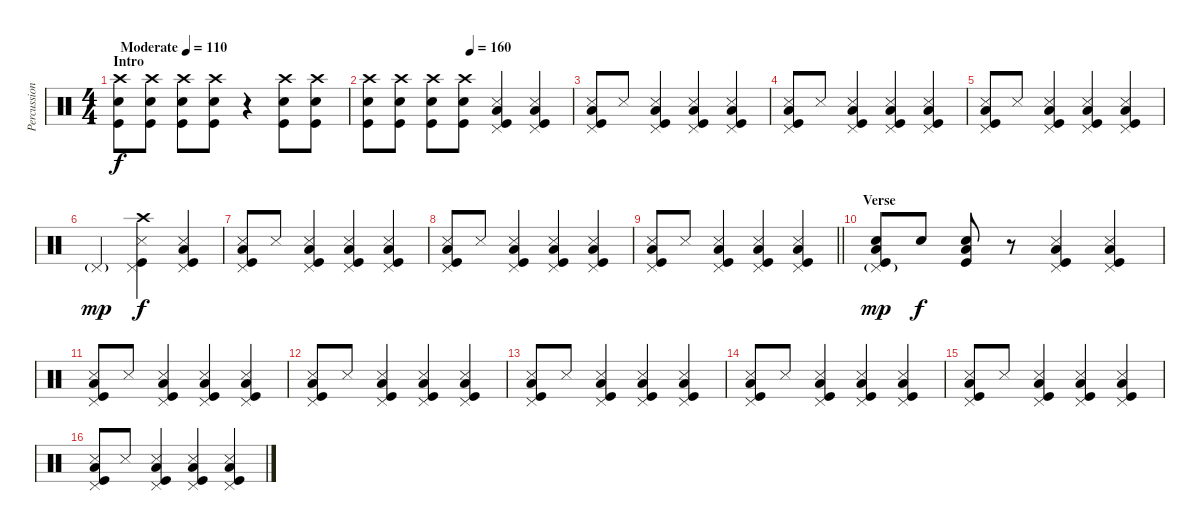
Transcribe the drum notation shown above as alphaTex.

\track ("Percussion" "Percussion") {instrument percussion}
\staff {score}
\articulation defaults
\ts (4 4)
\section ("" "Intro")
\tempo (110 "Moderate")
\clef neutral
\ks c
("Crash high (hit)" "Snare (hit) 2" "Kick (hit)").8{dy f} ("Crash high (hit)" "Snare (hit) 2" "Kick (hit)").8 ("Crash high (hit)" "Snare (hit) 2" "Kick (hit)").8 ("Crash high (hit)" "Snare (hit) 2" "Kick (hit)").8 r.4 ("Crash high (hit)" "Snare (hit) 2" "Kick (hit)").8 ("Crash high (hit)" "Snare (hit) 2" "Kick (hit)").8 |
\tempo (160 0.5)
("Crash high (hit)" "Snare (hit) 2" "Kick (hit)").8 ("Crash high (hit)" "Snare (hit) 2" "Kick (hit)").8 ("Crash high (hit)" "Snare (hit) 2" "Kick (hit)").8 ("Crash high (hit)" "Snare (hit) 2" "Kick (hit)").8 ("Snare (side stick) 3" "Low Floor Tom (hit)" "Kick (hit)" "Pedal Hi-Hat (hit)").4 ("Snare (side stick) 3" "Low Floor Tom (hit)" "Kick (hit)" "Pedal Hi-Hat (hit)").4 |
("Snare (side stick) 3" "Low Floor Tom (hit)" "Kick (hit)" "Pedal Hi-Hat (hit)").8 "Snare (side stick) 3".8 ("Snare (side stick) 3" "Low Floor Tom (hit)" "Kick (hit)" "Pedal Hi-Hat (hit)").4 ("Snare (side stick) 3" "Low Floor Tom (hit)" "Kick (hit)" "Pedal Hi-Hat (hit)").4 ("Snare (side stick) 3" "Low Floor Tom (hit)" "Kick (hit)" "Pedal Hi-Hat (hit)").4 |
("Snare (side stick) 3" "Low Floor Tom (hit)" "Kick (hit)" "Pedal Hi-Hat (hit)").8 "Snare (side stick) 3".8 ("Snare (side stick) 3" "Low Floor Tom (hit)" "Kick (hit)" "Pedal Hi-Hat (hit)").4 ("Snare (side stick) 3" "Low Floor Tom (hit)" "Kick (hit)" "Pedal Hi-Hat (hit)").4 ("Snare (side stick) 3" "Low Floor Tom (hit)" "Kick (hit)" "Pedal Hi-Hat (hit)").4 |
("Snare (side stick) 3" "Low Floor Tom (hit)" "Kick (hit)" "Pedal Hi-Hat (hit)").8 "Snare (side stick) 3".8 ("Snare (side stick) 3" "Low Floor Tom (hit)" "Kick (hit)" "Pedal Hi-Hat (hit)").4 ("Snare (side stick) 3" "Low Floor Tom (hit)" "Kick (hit)" "Pedal Hi-Hat (hit)").4 ("Snare (side stick) 3" "Low Floor Tom (hit)" "Kick (hit)" "Pedal Hi-Hat (hit)").4 |
"Pedal Hi-Hat (hit)"{g}.2{dy mp} ("Crash high (hit)" "Snare (side stick) 3" "Kick (hit)" "Pedal Hi-Hat (hit)").4{dy f} ("Snare (side stick) 3" "Low Floor Tom (hit)" "Kick (hit)" "Pedal Hi-Hat (hit)").4 |
("Snare (side stick) 3" "Low Floor Tom (hit)" "Kick (hit)" "Pedal Hi-Hat (hit)").8 "Snare (side stick) 3".8 ("Snare (side stick) 3" "Low Floor Tom (hit)" "Kick (hit)" "Pedal Hi-Hat (hit)").4 ("Snare (side stick) 3" "Low Floor Tom (hit)" "Kick (hit)" "Pedal Hi-Hat (hit)").4 ("Snare (side stick) 3" "Low Floor Tom (hit)" "Kick (hit)" "Pedal Hi-Hat (hit)").4 |
("Snare (side stick) 3" "Low Floor Tom (hit)" "Kick (hit)" "Pedal Hi-Hat (hit)").8 "Snare (side stick) 3".8 ("Snare (side stick) 3" "Low Floor Tom (hit)" "Kick (hit)" "Pedal Hi-Hat (hit)").4 ("Snare (side stick) 3" "Low Floor Tom (hit)" "Kick (hit)" "Pedal Hi-Hat (hit)").4 ("Snare (side stick) 3" "Low Floor Tom (hit)" "Kick (hit)" "Pedal Hi-Hat (hit)").4 |
\barLineRight lightlight
("Snare (side stick) 3" "Low Floor Tom (hit)" "Kick (hit)" "Pedal Hi-Hat (hit)").8 "Snare (side stick) 3".8 ("Snare (side stick) 3" "Low Floor Tom (hit)" "Kick (hit)" "Pedal Hi-Hat (hit)").4 ("Snare (side stick) 3" "Low Floor Tom (hit)" "Kick (hit)" "Pedal Hi-Hat (hit)").4 ("Snare (side stick) 3" "Low Floor Tom (hit)" "Kick (hit)" "Pedal Hi-Hat (hit)").4 |
\section ("" "Verse")
("Hand Clap (hit)" "Low Floor Tom (hit)" "Kick (hit)" "Pedal Hi-Hat (hit)"{g}).8{dy mp} "Hand Clap (hit)".8{dy f} ("Hand Clap (hit)" "Low Floor Tom (hit)" "Kick (hit)").8 r.8 ("Snare (side stick) 3" "Low Floor Tom (hit)" "Kick (hit)" "Pedal Hi-Hat (hit)").4 ("Snare (side stick) 3" "Low Floor Tom (hit)" "Kick (hit)" "Pedal Hi-Hat (hit)").4 |
("Snare (side stick) 3" "Low Floor Tom (hit)" "Kick (hit)" "Pedal Hi-Hat (hit)").8 "Snare (side stick) 3".8 ("Snare (side stick) 3" "Low Floor Tom (hit)" "Kick (hit)" "Pedal Hi-Hat (hit)").4 ("Snare (side stick) 3" "Low Floor Tom (hit)" "Kick (hit)" "Pedal Hi-Hat (hit)").4 ("Snare (side stick) 3" "Low Floor Tom (hit)" "Kick (hit)" "Pedal Hi-Hat (hit)").4 |
("Snare (side stick) 3" "Low Floor Tom (hit)" "Kick (hit)" "Pedal Hi-Hat (hit)").8 "Snare (side stick) 3".8 ("Snare (side stick) 3" "Low Floor Tom (hit)" "Kick (hit)" "Pedal Hi-Hat (hit)").4 ("Snare (side stick) 3" "Low Floor Tom (hit)" "Kick (hit)" "Pedal Hi-Hat (hit)").4 ("Snare (side stick) 3" "Low Floor Tom (hit)" "Kick (hit)" "Pedal Hi-Hat (hit)").4 |
("Snare (side stick) 3" "Low Floor Tom (hit)" "Kick (hit)" "Pedal Hi-Hat (hit)").8 "Snare (side stick) 3".8 ("Snare (side stick) 3" "Low Floor Tom (hit)" "Kick (hit)" "Pedal Hi-Hat (hit)").4 ("Snare (side stick) 3" "Low Floor Tom (hit)" "Kick (hit)" "Pedal Hi-Hat (hit)").4 ("Snare (side stick) 3" "Low Floor Tom (hit)" "Kick (hit)" "Pedal Hi-Hat (hit)").4 |
("Snare (side stick) 3" "Low Floor Tom (hit)" "Kick (hit)" "Pedal Hi-Hat (hit)").8 "Snare (side stick) 3".8 ("Snare (side stick) 3" "Low Floor Tom (hit)" "Kick (hit)" "Pedal Hi-Hat (hit)").4 ("Snare (side stick) 3" "Low Floor Tom (hit)" "Kick (hit)" "Pedal Hi-Hat (hit)").4 ("Snare (side stick) 3" "Low Floor Tom (hit)" "Kick (hit)" "Pedal Hi-Hat (hit)").4 |
("Snare (side stick) 3" "Low Floor Tom (hit)" "Kick (hit)" "Pedal Hi-Hat (hit)").8 "Snare (side stick) 3".8 ("Snare (side stick) 3" "Low Floor Tom (hit)" "Kick (hit)" "Pedal Hi-Hat (hit)").4 ("Snare (side stick) 3" "Low Floor Tom (hit)" "Kick (hit)" "Pedal Hi-Hat (hit)").4 ("Snare (side stick) 3" "Low Floor Tom (hit)" "Kick (hit)" "Pedal Hi-Hat (hit)").4 |
("Snare (side stick) 3" "Low Floor Tom (hit)" "Kick (hit)" "Pedal Hi-Hat (hit)").8 "Snare (side stick) 3".8 ("Snare (side stick) 3" "Low Floor Tom (hit)" "Kick (hit)" "Pedal Hi-Hat (hit)").4 ("Snare (side stick) 3" "Low Floor Tom (hit)" "Kick (hit)" "Pedal Hi-Hat (hit)").4 ("Snare (side stick) 3" "Low Floor Tom (hit)" "Kick (hit)" "Pedal Hi-Hat (hit)").4
